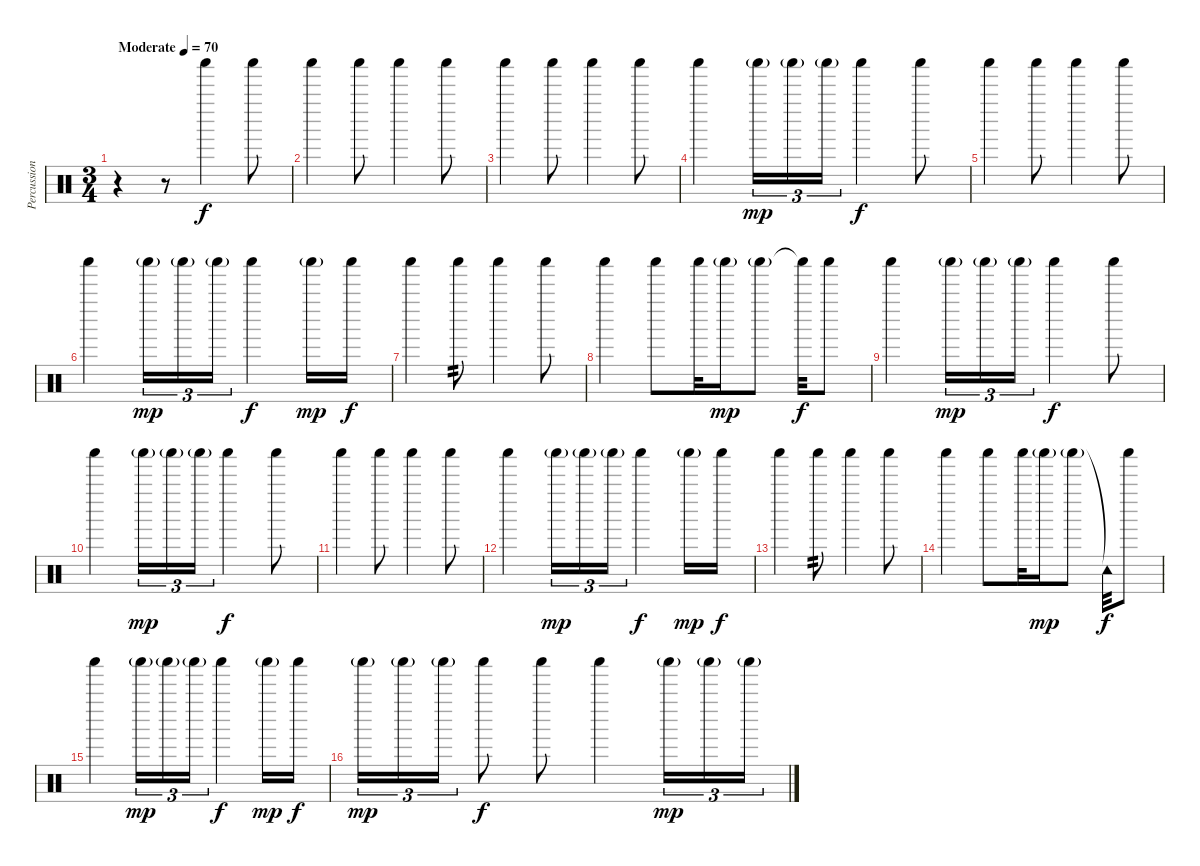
\track ("Percussion" "Percussion") {instrument percussion}
\staff {score}
\articulation defaults
\ts (3 4)
\tempo (70 "Moderate")
\clef neutral
\ks c
r.4{dy f} r.8 "Shaker (hit)".4 "Shaker (hit)".8 |
"Shaker (hit)".4 "Shaker (hit)".8 "Shaker (hit)".4 "Shaker (hit)".8 |
"Shaker (hit)".4 "Shaker (hit)".8 "Shaker (hit)".4 "Shaker (hit)".8 |
"Shaker (hit)".4 "Shaker (hit)"{g}.16{tu (3 2) dy mp} "Shaker (hit)"{g}.16{tu (3 2)} "Shaker (hit)"{g}.16{tu (3 2)} "Shaker (hit)".4{dy f} "Shaker (hit)".8 |
"Shaker (hit)".4 "Shaker (hit)".8 "Shaker (hit)".4 "Shaker (hit)".8 |
"Shaker (hit)".4 "Shaker (hit)"{g}.16{tu (3 2) dy mp} "Shaker (hit)"{g}.16{tu (3 2)} "Shaker (hit)"{g}.16{tu (3 2)} "Shaker (hit)".4{dy f} "Shaker (hit)"{g}.16{dy mp} "Shaker (hit)".16{dy f} |
"Shaker (hit)".4 "Shaker (hit)".8{tp 2} "Shaker (hit)".4 "Shaker (hit)".8 |
"Shaker (hit)".4 "Shaker (hit)".8 "Shaker (hit)".32 "Shaker (hit)"{g}.16{dy mp} "Shaker (hit)"{g}.8 "Shaker (hit)"{t}.32{dy f} "Shaker (hit)".8 |
"Shaker (hit)".4 "Shaker (hit)"{g}.16{tu (3 2) dy mp} "Shaker (hit)"{g}.16{tu (3 2)} "Shaker (hit)"{g}.16{tu (3 2)} "Shaker (hit)".4{dy f} "Shaker (hit)".8 |
"Shaker (hit)".4 "Shaker (hit)"{g}.16{tu (3 2) dy mp} "Shaker (hit)"{g}.16{tu (3 2)} "Shaker (hit)"{g}.16{tu (3 2)} "Shaker (hit)".4{dy f} "Shaker (hit)".8 |
"Shaker (hit)".4 "Shaker (hit)".8 "Shaker (hit)".4 "Shaker (hit)".8 |
"Shaker (hit)".4 "Shaker (hit)"{g}.16{tu (3 2) dy mp} "Shaker (hit)"{g}.16{tu (3 2)} "Shaker (hit)"{g}.16{tu (3 2)} "Shaker (hit)".4{dy f} "Shaker (hit)"{g}.16{dy mp} "Shaker (hit)".16{dy f} |
"Shaker (hit)".4 "Shaker (hit)".8{tp 2} "Shaker (hit)".4 "Shaker (hit)".8 |
"Shaker (hit)".4 "Shaker (hit)".8 "Shaker (hit)".32 "Shaker (hit)"{g}.16{dy mp} "Shaker (hit)"{g}.8 "Tambourine (hit)"{t}.32{dy f} "Shaker (hit)".8 |
"Shaker (hit)".4 "Shaker (hit)"{g}.16{tu (3 2) dy mp} "Shaker (hit)"{g}.16{tu (3 2)} "Shaker (hit)"{g}.16{tu (3 2)} "Shaker (hit)".4{dy f} "Shaker (hit)"{g}.16{dy mp} "Shaker (hit)".16{dy f} |
"Shaker (hit)"{g}.16{tu (3 2) dy mp} "Shaker (hit)"{g}.16{tu (3 2)} "Shaker (hit)"{g}.16{tu (3 2)} "Shaker (hit)".8{dy f} "Shaker (hit)".8 "Shaker (hit)".4 "Shaker (hit)"{g}.16{tu (3 2) dy mp} "Shaker (hit)"{g}.16{tu (3 2)} "Shaker (hit)"{g}.16{tu (3 2)}
